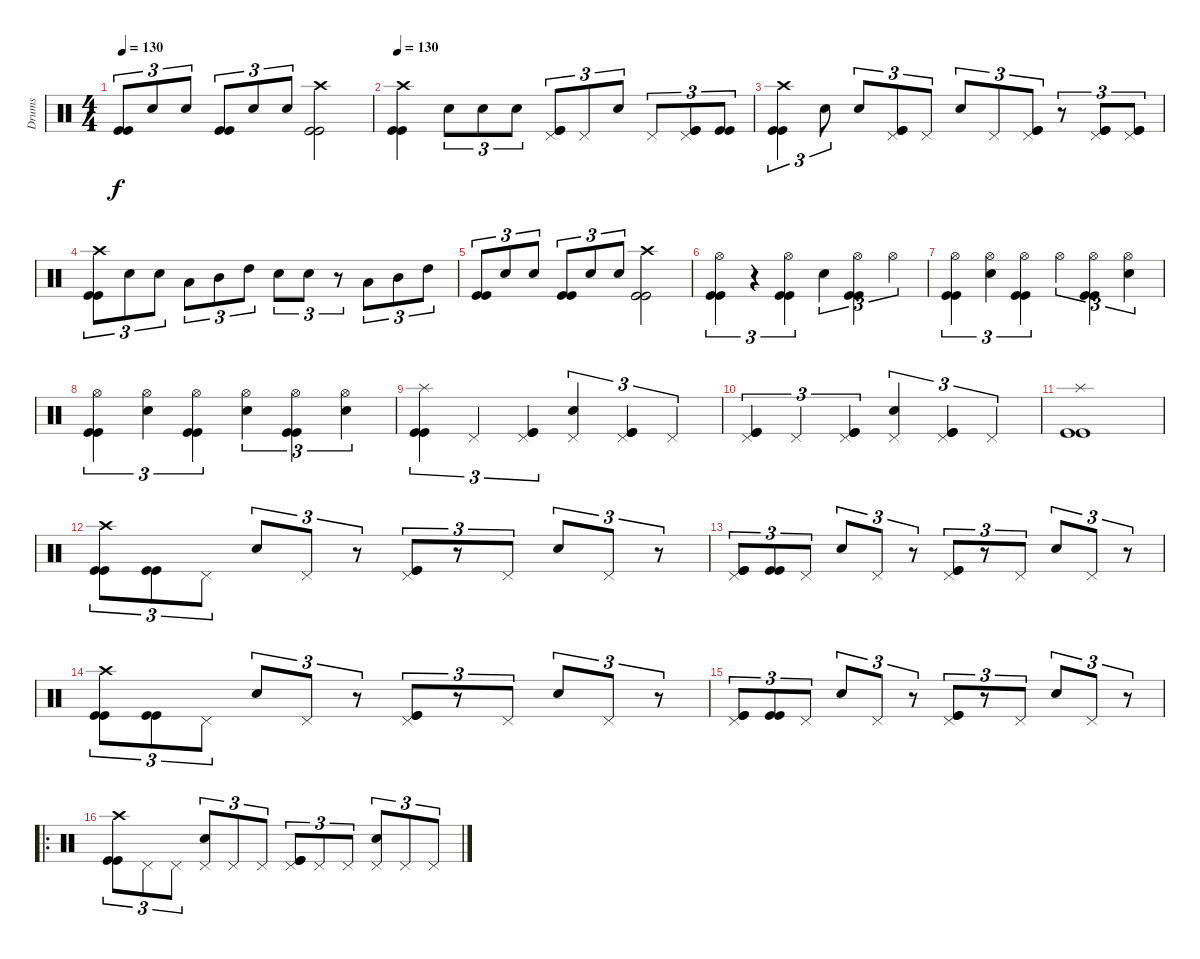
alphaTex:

\track ("Drums" "Drums") {instrument percussion}
\staff {score}
\articulation defaults
\ts (4 4)
\tempo 130
\clef neutral
\ks c
("Kick (hit)" "Kick (hit)").8{tu (3 2) dy f} "Snare (hit) 2".8{tu (3 2)} "Snare (hit) 2".8{tu (3 2)} ("Kick (hit)" "Kick (hit)").8{tu (3 2)} "Snare (hit) 2".8{tu (3 2)} "Snare (hit) 2".8{tu (3 2)} ("Crash high (hit)" "Kick (hit)" "Kick (hit)").2 |
\tempo 130
("Crash high (hit)" "Kick (hit)" "Kick (hit)").4 "Snare (hit) 2".8{tu (3 2)} "Snare (hit) 2".8{tu (3 2)} "Snare (hit) 2".8{tu (3 2)} ("Pedal Hi-Hat (hit)" "Kick (hit)" "Kick (hit)").8{tu (3 2)} "Pedal Hi-Hat (hit)".8{tu (3 2)} "Snare (hit) 2".8{tu (3 2)} "Pedal Hi-Hat (hit)".8{tu (3 2)} ("Pedal Hi-Hat (hit)" "Kick (hit)" "Kick (hit)").8{tu (3 2)} ("Kick (hit)" "Kick (hit)").8{tu (3 2)} |
("Crash high (hit)" "Kick (hit)" "Kick (hit)").4{tu (3 2)} "Snare (hit) 2".8{tu (3 2)} "Snare (hit) 2".8{tu (3 2)} ("Pedal Hi-Hat (hit)" "Kick (hit)" "Kick (hit)").8{tu (3 2)} "Pedal Hi-Hat (hit)".8{tu (3 2)} "Snare (hit) 2".8{tu (3 2)} "Pedal Hi-Hat (hit)".8{tu (3 2)} ("Pedal Hi-Hat (hit)" "Kick (hit)" "Kick (hit)").8{tu (3 2)} r.8{tu (3 2)} ("Pedal Hi-Hat (hit)" "Kick (hit)" "Kick (hit)").8{tu (3 2)} ("Pedal Hi-Hat (hit)" "Kick (hit)" "Kick (hit)").8{tu (3 2)} |
("Crash high (hit)" "Kick (hit)" "Kick (hit)").8{tu (3 2)} "Snare (hit) 2".8{tu (3 2)} "Snare (hit) 2".8{tu (3 2)} "Low Tom (hit)".8{tu (3 2)} "Mid Tom (hit)".8{tu (3 2)} "High Tom (hit)".8{tu (3 2)} "Snare (hit) 2".8{tu (3 2)} "Snare (hit) 2".8{tu (3 2)} r.8{tu (3 2)} "Low Tom (hit)".8{tu (3 2)} "Mid Tom (hit)".8{tu (3 2)} "High Tom (hit)".8{tu (3 2)} |
("Kick (hit)" "Kick (hit)").8{tu (3 2)} "Snare (hit) 2".8{tu (3 2)} "Snare (hit) 2".8{tu (3 2)} ("Kick (hit)" "Kick (hit)").8{tu (3 2)} "Snare (hit) 2".8{tu (3 2)} "Snare (hit) 2".8{tu (3 2)} ("Crash high (hit)" "Kick (hit)" "Kick (hit)").2 |
("Hi-Hat (open)" "Kick (hit)" "Kick (hit)").4{tu (3 2)} r.4{tu (3 2)} ("Hi-Hat (open)" "Kick (hit)" "Kick (hit)").4{tu (3 2)} "Snare (hit) 2".4{tu (3 2)} ("Hi-Hat (open)" "Kick (hit)" "Kick (hit)").4{tu (3 2)} "Hi-Hat (open)".4{tu (3 2)} |
("Hi-Hat (open)" "Kick (hit)" "Kick (hit)").4{tu (3 2)} ("Hi-Hat (open)" "Snare (hit) 2").4{tu (3 2)} ("Hi-Hat (open)" "Kick (hit)" "Kick (hit)").4{tu (3 2)} "Hi-Hat (open)".4{tu (3 2)} ("Hi-Hat (open)" "Kick (hit)" "Kick (hit)").4{tu (3 2)} ("Hi-Hat (open)" "Snare (hit) 2").4{tu (3 2)} |
("Hi-Hat (open)" "Kick (hit)" "Kick (hit)").4{tu (3 2)} ("Hi-Hat (open)" "Snare (hit) 2").4{tu (3 2)} ("Hi-Hat (open)" "Kick (hit)" "Kick (hit)").4{tu (3 2)} ("Hi-Hat (open)" "Snare (hit) 2").4{tu (3 2)} ("Hi-Hat (open)" "Kick (hit)" "Kick (hit)").4{tu (3 2)} ("Hi-Hat (open)" "Snare (hit) 2").4{tu (3 2)} |
("Splash (hit)" "Kick (hit)" "Kick (hit)").4{tu (3 2)} "Pedal Hi-Hat (hit)".4{tu (3 2)} ("Pedal Hi-Hat (hit)" "Kick (hit)" "Kick (hit)").4{tu (3 2)} ("Pedal Hi-Hat (hit)" "Snare (hit) 2").4{tu (3 2)} ("Pedal Hi-Hat (hit)" "Kick (hit)" "Kick (hit)").4{tu (3 2)} "Pedal Hi-Hat (hit)".4{tu (3 2)} |
("Pedal Hi-Hat (hit)" "Kick (hit)" "Kick (hit)").4{tu (3 2)} "Pedal Hi-Hat (hit)".4{tu (3 2)} ("Pedal Hi-Hat (hit)" "Kick (hit)" "Kick (hit)").4{tu (3 2)} ("Pedal Hi-Hat (hit)" "Snare (hit) 2").4{tu (3 2)} ("Pedal Hi-Hat (hit)" "Kick (hit)" "Kick (hit)").4{tu (3 2)} "Pedal Hi-Hat (hit)".4{tu (3 2)} |
("Splash (hit)" "Kick (hit)" "Kick (hit)").1 |
("Crash high (hit)" "Kick (hit)" "Kick (hit)").8{tu (3 2)} ("Kick (hit)" "Kick (hit)").8{tu (3 2)} "Pedal Hi-Hat (hit)".8{tu (3 2)} "Snare (hit) 2".8{tu (3 2)} "Pedal Hi-Hat (hit)".8{tu (3 2)} r.8{tu (3 2)} ("Pedal Hi-Hat (hit)" "Kick (hit)" "Kick (hit)").8{tu (3 2)} r.8{tu (3 2)} "Pedal Hi-Hat (hit)".8{tu (3 2)} "Snare (hit) 2".8{tu (3 2)} "Pedal Hi-Hat (hit)".8{tu (3 2)} r.8{tu (3 2)} |
("Pedal Hi-Hat (hit)" "Kick (hit)" "Kick (hit)").8{tu (3 2)} ("Kick (hit)" "Kick (hit)").8{tu (3 2)} "Pedal Hi-Hat (hit)".8{tu (3 2)} "Snare (hit) 2".8{tu (3 2)} "Pedal Hi-Hat (hit)".8{tu (3 2)} r.8{tu (3 2)} ("Pedal Hi-Hat (hit)" "Kick (hit)" "Kick (hit)").8{tu (3 2)} r.8{tu (3 2)} "Pedal Hi-Hat (hit)".8{tu (3 2)} "Snare (hit) 2".8{tu (3 2)} "Pedal Hi-Hat (hit)".8{tu (3 2)} r.8{tu (3 2)} |
("Crash high (hit)" "Kick (hit)" "Kick (hit)").8{tu (3 2)} ("Kick (hit)" "Kick (hit)").8{tu (3 2)} "Pedal Hi-Hat (hit)".8{tu (3 2)} "Snare (hit) 2".8{tu (3 2)} "Pedal Hi-Hat (hit)".8{tu (3 2)} r.8{tu (3 2)} ("Pedal Hi-Hat (hit)" "Kick (hit)" "Kick (hit)").8{tu (3 2)} r.8{tu (3 2)} "Pedal Hi-Hat (hit)".8{tu (3 2)} "Snare (hit) 2".8{tu (3 2)} "Pedal Hi-Hat (hit)".8{tu (3 2)} r.8{tu (3 2)} |
("Pedal Hi-Hat (hit)" "Kick (hit)" "Kick (hit)").8{tu (3 2)} ("Kick (hit)" "Kick (hit)").8{tu (3 2)} "Pedal Hi-Hat (hit)".8{tu (3 2)} "Snare (hit) 2".8{tu (3 2)} "Pedal Hi-Hat (hit)".8{tu (3 2)} r.8{tu (3 2)} ("Pedal Hi-Hat (hit)" "Kick (hit)" "Kick (hit)").8{tu (3 2)} r.8{tu (3 2)} "Pedal Hi-Hat (hit)".8{tu (3 2)} "Snare (hit) 2".8{tu (3 2)} "Pedal Hi-Hat (hit)".8{tu (3 2)} r.8{tu (3 2)} |
\ro
("Crash high (hit)" "Kick (hit)" "Kick (hit)").8{tu (3 2)} "Pedal Hi-Hat (hit)".8{tu (3 2)} "Pedal Hi-Hat (hit)".8{tu (3 2)} ("Pedal Hi-Hat (hit)" "Snare (hit) 2").8{tu (3 2)} "Pedal Hi-Hat (hit)".8{tu (3 2)} "Pedal Hi-Hat (hit)".8{tu (3 2)} ("Pedal Hi-Hat (hit)" "Kick (hit)" "Kick (hit)").8{tu (3 2)} "Pedal Hi-Hat (hit)".8{tu (3 2)} "Pedal Hi-Hat (hit)".8{tu (3 2)} ("Pedal Hi-Hat (hit)" "Snare (hit) 2").8{tu (3 2)} "Pedal Hi-Hat (hit)".8{tu (3 2)} "Pedal Hi-Hat (hit)".8{tu (3 2)}
